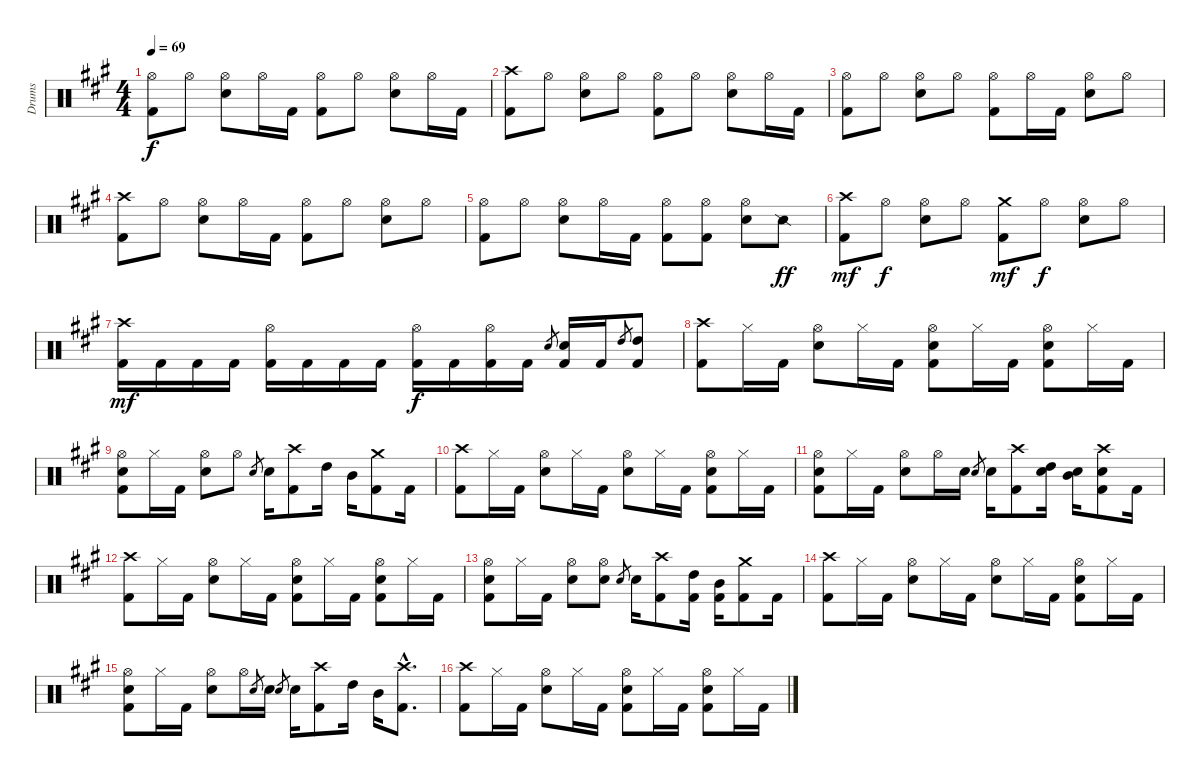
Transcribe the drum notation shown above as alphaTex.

\track ("Drums" "Drums") {instrument percussion}
\staff {score}
\articulation defaults
\ts (4 4)
\tempo 69
\clef neutral
\ks f#minor
("Hi-Hat (open)" "Kick (hit) 2").8{dy f} "Hi-Hat (open)".8 ("Hi-Hat (open)" "Snare (hit) 2").8 "Hi-Hat (open)".16 "Kick (hit) 2".16 ("Hi-Hat (open)" "Kick (hit) 2").8 "Hi-Hat (open)".8 ("Hi-Hat (open)" "Snare (hit) 2").8 "Hi-Hat (open)".16 "Kick (hit) 2".16 |
("Crash high (hit)" "Kick (hit) 2").8 "Hi-Hat (open)".8 ("Hi-Hat (open)" "Snare (hit) 2").8 "Hi-Hat (open)".8 ("Hi-Hat (open)" "Kick (hit) 2").8 "Hi-Hat (open)".8 ("Hi-Hat (open)" "Snare (hit) 2").8 "Hi-Hat (open)".16 "Kick (hit) 2".16 |
("Hi-Hat (open)" "Kick (hit) 2").8 "Hi-Hat (open)".8 ("Hi-Hat (open)" "Snare (hit) 2").8 "Hi-Hat (open)".8 ("Hi-Hat (open)" "Kick (hit) 2").8 "Hi-Hat (open)".16 "Kick (hit) 2".16 ("Hi-Hat (open)" "Snare (hit) 2").8 "Hi-Hat (open)".8 |
("Crash high (hit)" "Kick (hit) 2").8 "Hi-Hat (open)".8 ("Hi-Hat (open)" "Snare (hit) 2").8 "Hi-Hat (open)".16 "Kick (hit) 2".16 ("Hi-Hat (open)" "Kick (hit) 2").8 "Hi-Hat (open)".8 ("Hi-Hat (open)" "Snare (hit) 2").8 "Hi-Hat (open)".8 |
("Hi-Hat (open)" "Kick (hit) 2").8 "Hi-Hat (open)".8 ("Hi-Hat (open)" "Snare (hit) 2").8 "Hi-Hat (open)".16 "Kick (hit) 2".16 ("Hi-Hat (open)" "Kick (hit) 2").8 ("Hi-Hat (open)" "Kick (hit) 2").8 ("Hi-Hat (open)" "Snare (hit) 2").8 "Snare (side stick) 2".8{dy ff} |
("Crash high (hit)" "Kick (hit) 2").8{dy mf} "Hi-Hat (open)".8{dy f} ("Hi-Hat (open)" "Snare (hit) 2").8 "Hi-Hat (open)".8 ("Crash medium (hit)" "Kick (hit) 2").8{dy mf} "Hi-Hat (open)".8{dy f} ("Hi-Hat (open)" "Snare (hit) 2").8 "Hi-Hat (open)".8 |
("Crash high (hit)" "Kick (hit) 2").16{dy mf} "Kick (hit) 2".16 "Kick (hit) 2".16 "Kick (hit) 2".16 ("Hi-Hat (open)" "Kick (hit) 2").16 "Kick (hit) 2".16 "Kick (hit) 2".16 "Kick (hit) 2".16 ("Hi-Hat (open)" "Kick (hit) 2").16{dy f} "Kick (hit) 2".16 ("Hi-Hat (open)" "Kick (hit) 2").16 "Kick (hit) 2".16 "Snare (hit) 2".8{gr} ("Snare (hit) 2" "Kick (hit) 2").16 "Kick (hit) 2".16 "High Tom (hit)".8{gr} ("High Tom (hit)" "Kick (hit) 2").8 |
("Crash high (hit)" "Kick (hit) 2").8 "Hi-Hat (closed)".16 "Kick (hit) 2".16 ("Hi-Hat (open)" "Snare (hit) 2").8 "Hi-Hat (closed)".16 "Kick (hit) 2".16 ("Hi-Hat (open)" "Snare (hit) 2" "Kick (hit) 2").8 "Hi-Hat (closed)".16 "Kick (hit) 2".16 ("Hi-Hat (open)" "Snare (hit) 2" "Kick (hit) 2").8 "Hi-Hat (closed)".16 "Kick (hit) 2".16 |
("Hi-Hat (open)" "Snare (hit) 2" "Kick (hit) 2").8 "Hi-Hat (closed)".16 "Kick (hit) 2".16 ("Hi-Hat (open)" "Snare (hit) 2").8 "Hi-Hat (open)".8 "Snare (hit) 2".8{gr} "Snare (hit) 2".16 ("Crash high (hit)" "Kick (hit) 2").8 "High Tom (hit)".16 "Mid Tom (hit)".16 ("Crash medium (hit)" "Kick (hit) 2").8 "Kick (hit) 2".16 |
("Crash high (hit)" "Kick (hit) 2").8 "Hi-Hat (closed)".16 "Kick (hit) 2".16 ("Hi-Hat (open)" "Snare (hit) 2").8 "Hi-Hat (closed)".16 "Kick (hit) 2".16 ("Hi-Hat (open)" "Snare (hit) 2").8 "Hi-Hat (closed)".16 "Kick (hit) 2".16 ("Hi-Hat (open)" "Snare (hit) 2" "Kick (hit) 2").8 "Hi-Hat (closed)".16 "Kick (hit) 2".16 |
("Hi-Hat (open)" "Snare (hit) 2" "Kick (hit) 2").8 "Hi-Hat (closed)".16 "Kick (hit) 2".16 ("Hi-Hat (open)" "Snare (hit) 2").8 "Hi-Hat (open)".16 "Snare (hit) 2".16 "Snare (hit) 2".8{gr} "Snare (hit) 2".16 ("Crash high (hit)" "Kick (hit) 2").8 ("High Tom (hit)" "Snare (hit) 2").16 ("Mid Tom (hit)" "Snare (hit) 2").16 ("Crash high (hit)" "Snare (hit) 2" "Kick (hit) 2").8 "Kick (hit) 2".16 |
("Crash high (hit)" "Kick (hit) 2").8 "Hi-Hat (closed)".16 "Kick (hit) 2".16 ("Hi-Hat (open)" "Snare (hit) 2").8 "Hi-Hat (closed)".16 "Kick (hit) 2".16 ("Hi-Hat (open)" "Snare (hit) 2" "Kick (hit) 2").8 "Hi-Hat (closed)".16 "Kick (hit) 2".16 ("Hi-Hat (open)" "Snare (hit) 2" "Kick (hit) 2").8 "Hi-Hat (closed)".16 "Kick (hit) 2".16 |
("Hi-Hat (open)" "Snare (hit) 2" "Kick (hit) 2").8 "Hi-Hat (closed)".16 "Kick (hit) 2".16 ("Hi-Hat (open)" "Snare (hit) 2").8 ("Hi-Hat (open)" "Snare (hit) 2").8 "Snare (hit) 2".8{gr} "Snare (hit) 2".16 ("Crash high (hit)" "Kick (hit) 2").8 ("High Tom (hit)" "Kick (hit) 2").16 ("Mid Tom (hit)" "Kick (hit) 2").16 ("Crash medium (hit)" "Kick (hit) 2").8 "Kick (hit) 2".16 |
("Crash high (hit)" "Kick (hit) 2").8 "Hi-Hat (closed)".16 "Kick (hit) 2".16 ("Hi-Hat (open)" "Snare (hit) 2").8 "Hi-Hat (closed)".16 "Kick (hit) 2".16 ("Hi-Hat (open)" "Snare (hit) 2").8 "Hi-Hat (closed)".16 "Kick (hit) 2".16 ("Hi-Hat (open)" "Snare (hit) 2" "Kick (hit) 2").8 "Hi-Hat (closed)".16 "Kick (hit) 2".16 |
("Hi-Hat (open)" "Snare (hit) 2" "Kick (hit) 2").8 "Hi-Hat (closed)".16 "Kick (hit) 2".16 ("Hi-Hat (open)" "Snare (hit) 2").8 "Hi-Hat (open)".16 "Snare (hit) 2".8{gr} "Snare (hit) 2".16 "Snare (hit) 2".8{gr} "Snare (hit) 2".16 ("Crash high (hit)" "Kick (hit) 2").8 "High Tom (hit)".16 "Mid Tom (hit)".16 ("Crash high (hit)"{hac} "Kick (hit) 2"{hac}).8{d} |
("Crash high (hit)" "Kick (hit) 2").8 "Hi-Hat (closed)".16 "Kick (hit) 2".16 ("Hi-Hat (open)" "Snare (hit) 2").8 "Hi-Hat (closed)".16 "Kick (hit) 2".16 ("Hi-Hat (open)" "Snare (hit) 2" "Kick (hit) 2").8 "Hi-Hat (closed)".16 "Kick (hit) 2".16 ("Hi-Hat (open)" "Snare (hit) 2" "Kick (hit) 2").8 "Hi-Hat (closed)".16 "Kick (hit) 2".16
